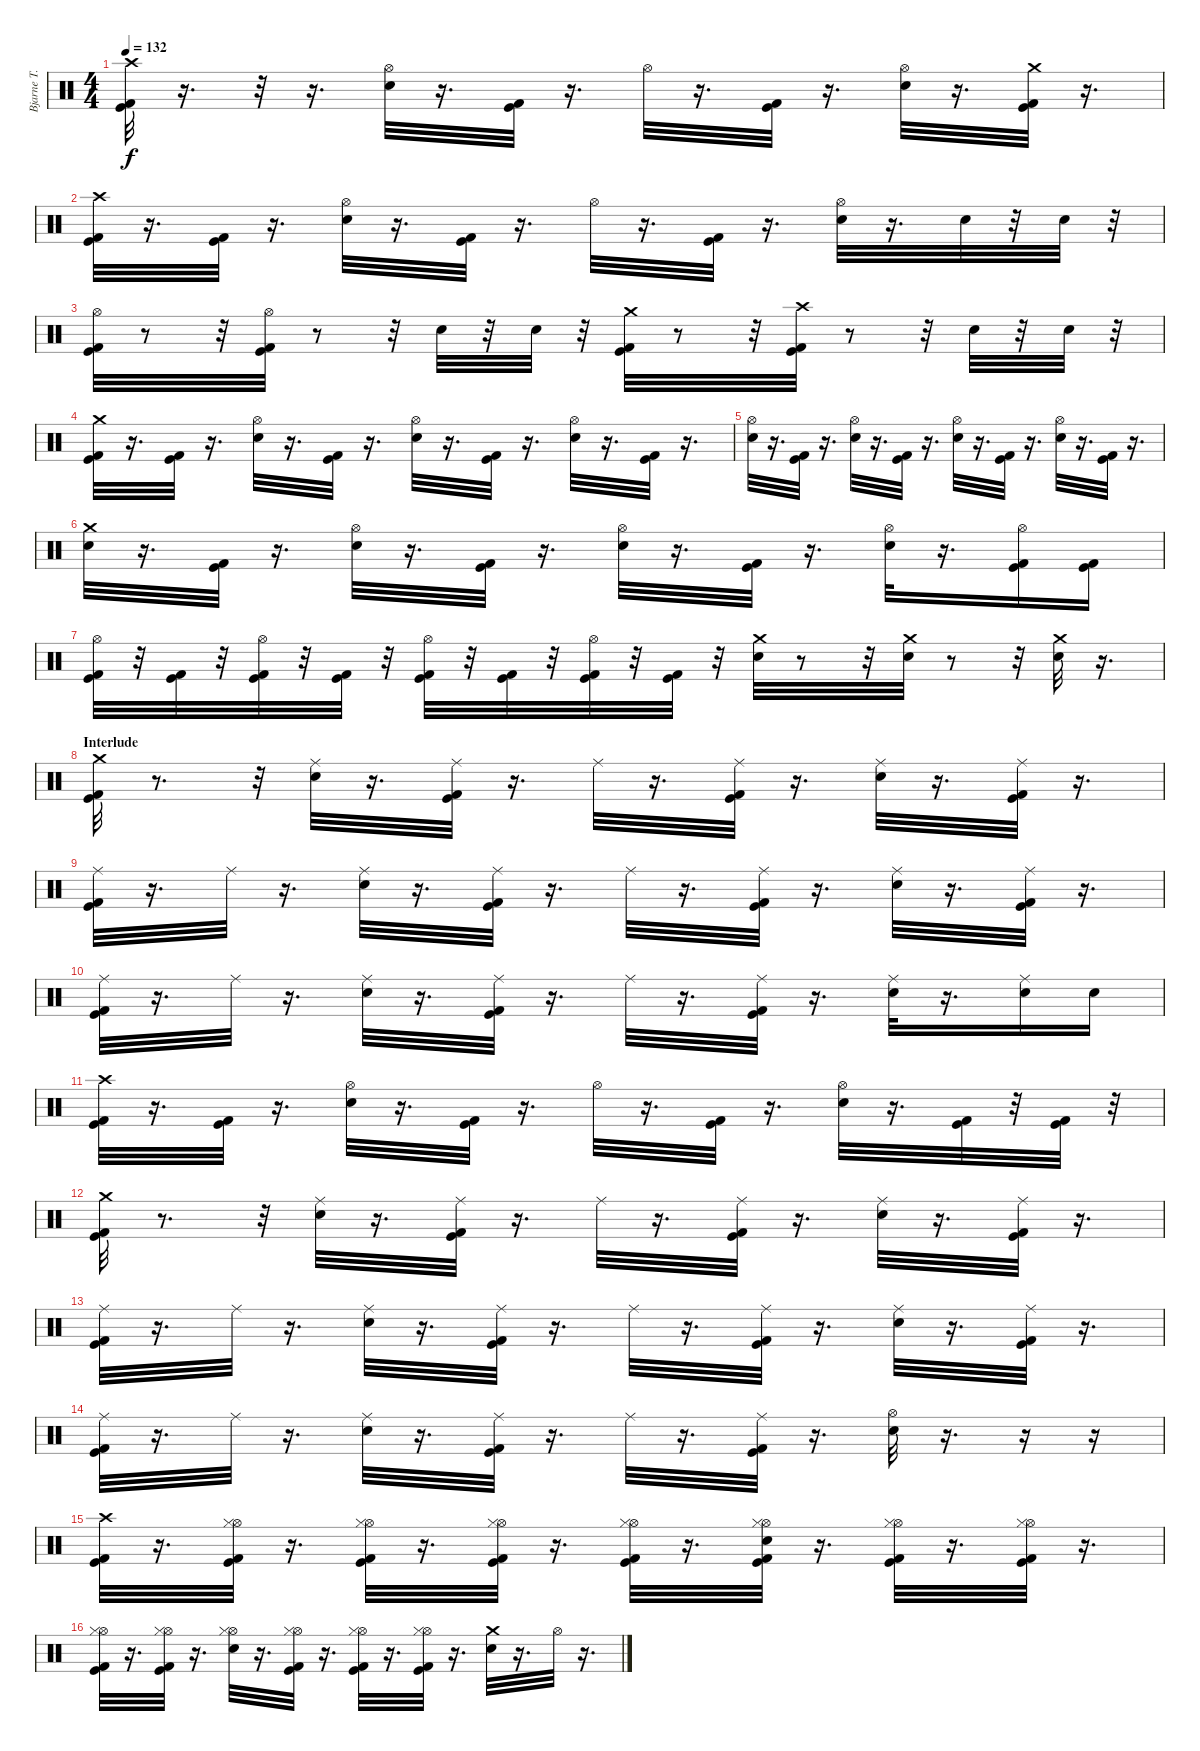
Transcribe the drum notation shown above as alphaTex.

\track ("Bjarne T. Holme" "Bjarne T. ") {instrument percussion}
\staff {score}
\articulation defaults
\ts (4 4)
\tempo 132
\clef neutral
\ks c
("Crash high (hit)" "Kick (hit)" "Kick (hit) 2").32{dy f} r.16{d} r.32 r.16{d} ("Hi-Hat (open)" "Snare (hit) 2").32 r.16{d} ("Kick (hit)" "Kick (hit) 2").32 r.16{d} "Hi-Hat (open)".32 r.16{d} ("Kick (hit)" "Kick (hit) 2").32 r.16{d} ("Hi-Hat (open)" "Snare (hit) 2").32 r.16{d} ("Crash medium (hit)" "Kick (hit)" "Kick (hit) 2").32 r.16{d} |
("Crash high (hit)" "Kick (hit)" "Kick (hit) 2").32 r.16{d} ("Kick (hit)" "Kick (hit) 2").32 r.16{d} ("Hi-Hat (open)" "Snare (hit) 2").32 r.16{d} ("Kick (hit)" "Kick (hit) 2").32 r.16{d} "Hi-Hat (open)".32 r.16{d} ("Kick (hit)" "Kick (hit) 2").32 r.16{d} ("Hi-Hat (open)" "Snare (hit) 2").32 r.16{d} "Snare (hit) 2".32 r.32 "Snare (hit) 2".32 r.32 |
("Hi-Hat (open)" "Kick (hit)" "Kick (hit) 2").32 r.8 r.32 ("Hi-Hat (open)" "Kick (hit)" "Kick (hit) 2").32 r.8 r.32 "Snare (hit) 2".32 r.32 "Snare (hit) 2".32 r.32 ("Crash medium (hit)" "Kick (hit)" "Kick (hit) 2").32 r.8 r.32 ("Crash high (hit)" "Kick (hit)" "Kick (hit) 2").32 r.8 r.32 "Snare (hit) 2".32 r.32 "Snare (hit) 2".32 r.32 |
("Crash medium (hit)" "Kick (hit)" "Kick (hit) 2").32 r.16{d} ("Kick (hit)" "Kick (hit) 2").32 r.16{d} ("Hi-Hat (open)" "Snare (hit) 2").32 r.16{d} ("Kick (hit)" "Kick (hit) 2").32 r.16{d} ("Hi-Hat (open)" "Snare (hit) 2").32 r.16{d} ("Kick (hit)" "Kick (hit) 2").32 r.16{d} ("Hi-Hat (open)" "Snare (hit) 2").32 r.16{d} ("Kick (hit)" "Kick (hit) 2").32 r.16{d} |
("Hi-Hat (open)" "Snare (hit) 2").32 r.16{d} ("Kick (hit)" "Kick (hit) 2").32 r.16{d} ("Hi-Hat (open)" "Snare (hit) 2").32 r.16{d} ("Kick (hit)" "Kick (hit) 2").32 r.16{d} ("Hi-Hat (open)" "Snare (hit) 2").32 r.16{d} ("Kick (hit)" "Kick (hit) 2").32 r.16{d} ("Hi-Hat (open)" "Snare (hit) 2").32 r.16{d} ("Kick (hit)" "Kick (hit) 2").32 r.16{d} |
("Crash medium (hit)" "Snare (hit) 2").32 r.16{d} ("Kick (hit)" "Kick (hit) 2").32 r.16{d} ("Hi-Hat (open)" "Snare (hit) 2").32 r.16{d} ("Kick (hit)" "Kick (hit) 2").32 r.16{d} ("Hi-Hat (open)" "Snare (hit) 2").32 r.16{d} ("Kick (hit)" "Kick (hit) 2").32 r.16{d} ("Hi-Hat (open)" "Snare (hit) 2").32 r.16{d} ("Hi-Hat (open)" "Kick (hit)" "Kick (hit) 2").16 ("Kick (hit)" "Kick (hit) 2").16 |
("Hi-Hat (open)" "Kick (hit)" "Kick (hit) 2").32 r.32 ("Kick (hit)" "Kick (hit) 2").32 r.32 ("Hi-Hat (open)" "Kick (hit)" "Kick (hit) 2").32 r.32 ("Kick (hit)" "Kick (hit) 2").32 r.32 ("Hi-Hat (open)" "Kick (hit)" "Kick (hit) 2").32 r.32 ("Kick (hit)" "Kick (hit) 2").32 r.32 ("Hi-Hat (open)" "Kick (hit)" "Kick (hit) 2").32 r.32 ("Kick (hit)" "Kick (hit) 2").32 r.32 ("Crash medium (hit)" "Snare (hit) 2").32 r.8 r.32 ("Crash medium (hit)" "Snare (hit) 2").32 r.8 r.32 ("Crash medium (hit)" "Snare (hit) 2").32 r.16{d} |
\section ("" "Interlude")
("Crash medium (hit)" "Kick (hit)" "Kick (hit) 2").32 r.8{d} r.32 ("Ride (middle)" "Snare (hit) 2").32 r.16{d} ("Ride (middle)" "Kick (hit)" "Kick (hit) 2").32 r.16{d} "Ride (middle)".32 r.16{d} ("Ride (middle)" "Kick (hit)" "Kick (hit) 2").32 r.16{d} ("Ride (middle)" "Snare (hit) 2").32 r.16{d} ("Ride (middle)" "Kick (hit)" "Kick (hit) 2").32 r.16{d} |
("Ride (middle)" "Kick (hit)" "Kick (hit) 2").32 r.16{d} "Ride (middle)".32 r.16{d} ("Ride (middle)" "Snare (hit) 2").32 r.16{d} ("Ride (middle)" "Kick (hit)" "Kick (hit) 2").32 r.16{d} "Ride (middle)".32 r.16{d} ("Ride (middle)" "Kick (hit)" "Kick (hit) 2").32 r.16{d} ("Ride (middle)" "Snare (hit) 2").32 r.16{d} ("Ride (middle)" "Kick (hit)" "Kick (hit) 2").32 r.16{d} |
("Ride (middle)" "Kick (hit)" "Kick (hit) 2").32 r.16{d} "Ride (middle)".32 r.16{d} ("Ride (middle)" "Snare (hit) 2").32 r.16{d} ("Ride (middle)" "Kick (hit)" "Kick (hit) 2").32 r.16{d} "Ride (middle)".32 r.16{d} ("Ride (middle)" "Kick (hit)" "Kick (hit) 2").32 r.16{d} ("Ride (middle)" "Snare (hit) 2").32 r.16{d} ("Ride (middle)" "Snare (hit) 2").16 "Snare (hit) 2".16 |
("Crash high (hit)" "Kick (hit)" "Kick (hit) 2").32 r.16{d} ("Kick (hit)" "Kick (hit) 2").32 r.16{d} ("Hi-Hat (open)" "Snare (hit) 2").32 r.16{d} ("Kick (hit)" "Kick (hit) 2").32 r.16{d} "Hi-Hat (open)".32 r.16{d} ("Kick (hit)" "Kick (hit) 2").32 r.16{d} ("Hi-Hat (open)" "Snare (hit) 2").32 r.16{d} ("Kick (hit)" "Kick (hit) 2").32 r.32 ("Kick (hit)" "Kick (hit) 2").32 r.32 |
("Crash medium (hit)" "Kick (hit)" "Kick (hit) 2").32 r.8{d} r.32 ("Ride (middle)" "Snare (hit) 2").32 r.16{d} ("Ride (middle)" "Kick (hit)" "Kick (hit) 2").32 r.16{d} "Ride (middle)".32 r.16{d} ("Ride (middle)" "Kick (hit)" "Kick (hit) 2").32 r.16{d} ("Ride (middle)" "Snare (hit) 2").32 r.16{d} ("Ride (middle)" "Kick (hit)" "Kick (hit) 2").32 r.16{d} |
("Ride (middle)" "Kick (hit)" "Kick (hit) 2").32 r.16{d} "Ride (middle)".32 r.16{d} ("Ride (middle)" "Snare (hit) 2").32 r.16{d} ("Ride (middle)" "Kick (hit)" "Kick (hit) 2").32 r.16{d} "Ride (middle)".32 r.16{d} ("Ride (middle)" "Kick (hit)" "Kick (hit) 2").32 r.16{d} ("Ride (middle)" "Snare (hit) 2").32 r.16{d} ("Ride (middle)" "Kick (hit)" "Kick (hit) 2").32 r.16{d} |
("Ride (middle)" "Kick (hit)" "Kick (hit) 2").32 r.16{d} "Ride (middle)".32 r.16{d} ("Ride (middle)" "Snare (hit) 2").32 r.16{d} ("Ride (middle)" "Kick (hit)" "Kick (hit) 2").32 r.16{d} "Ride (middle)".32 r.16{d} ("Ride (middle)" "Kick (hit)" "Kick (hit) 2").32 r.16{d} ("Hi-Hat (open)" "Snare (hit) 2").32 r.16{d} r.16 r.16 |
("Crash high (hit)" "Kick (hit)" "Kick (hit) 2").32 r.16{d} ("Hi-Hat (open)" "Hi-Hat (closed)" "Kick (hit)" "Kick (hit) 2").32 r.16{d} ("Hi-Hat (open)" "Hi-Hat (closed)" "Kick (hit)" "Kick (hit) 2").32 r.16{d} ("Hi-Hat (open)" "Hi-Hat (closed)" "Kick (hit)" "Kick (hit) 2").32 r.16{d} ("Hi-Hat (open)" "Hi-Hat (closed)" "Kick (hit)" "Kick (hit) 2").32 r.16{d} ("Hi-Hat (open)" "Hi-Hat (closed)" "Snare (hit) 2" "Kick (hit)" "Kick (hit) 2").32 r.16{d} ("Hi-Hat (open)" "Hi-Hat (closed)" "Kick (hit)" "Kick (hit) 2").32 r.16{d} ("Hi-Hat (open)" "Hi-Hat (closed)" "Kick (hit)" "Kick (hit) 2").32 r.16{d} |
("Hi-Hat (open)" "Hi-Hat (closed)" "Kick (hit)" "Kick (hit) 2").32 r.16{d} ("Hi-Hat (open)" "Hi-Hat (closed)" "Kick (hit)" "Kick (hit) 2").32 r.16{d} ("Hi-Hat (open)" "Hi-Hat (closed)" "Snare (hit) 2").32 r.16{d} ("Hi-Hat (open)" "Hi-Hat (closed)" "Kick (hit)" "Kick (hit) 2").32 r.16{d} ("Hi-Hat (open)" "Hi-Hat (closed)" "Kick (hit)" "Kick (hit) 2").32 r.16{d} ("Hi-Hat (open)" "Hi-Hat (closed)" "Kick (hit)" "Kick (hit) 2").32 r.16{d} ("Crash medium (hit)" "Snare (hit) 2").32 r.16{d} "Hi-Hat (open)".32 r.16{d}
